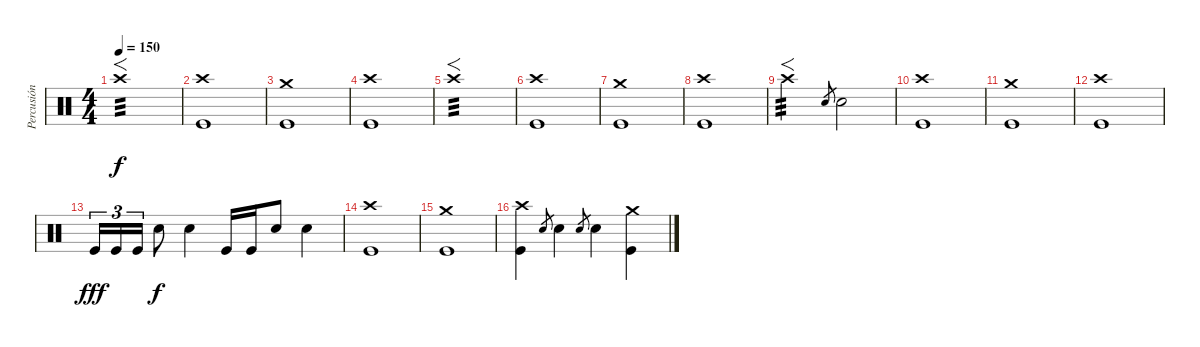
\track ("Percusión" "Percusión") {instrument percussion}
\staff {score}
\articulation defaults
\ts (4 4)
\tempo 150
\clef neutral
\ks c "Crash high (hit)".1{f tp 3 dy f}
|
("Crash high (hit)" "Kick (hit)").1 |
("Crash medium (hit)" "Kick (hit)").1 |
("Crash high (hit)" "Kick (hit)").1 |
"Crash high (hit)".1{f tp 3} |
("Crash high (hit)" "Kick (hit)").1 |
("Crash medium (hit)" "Kick (hit)").1 |
("Crash high (hit)" "Kick (hit)").1 |
"Crash high (hit)".2{f tp 3} "Electric Snare (hit)".8{gr} "Electric Snare (hit)".2 |
("Crash high (hit)" "Kick (hit)").1 |
("Crash medium (hit)" "Kick (hit)").1 |
("Crash high (hit)" "Kick (hit)").1 |
"Kick (hit)".16{tu (3 2) dy fff} "Kick (hit)".16{tu (3 2)} "Kick (hit)".16{tu (3 2)} "Electric Snare (hit)".8{dy f} "Electric Snare (hit)".4 "Kick (hit)".16 "Kick (hit)".16 "Electric Snare (hit)".8 "Electric Snare (hit)".4 |
("Crash high (hit)" "Kick (hit)").1 |
("Crash medium (hit)" "Kick (hit)").1 |
("Crash high (hit)" "Kick (hit)").4 "Electric Snare (hit)".8{gr} "Electric Snare (hit)".4 "Electric Snare (hit)".8{gr} "Electric Snare (hit)".4 ("Crash medium (hit)" "Kick (hit)").4
